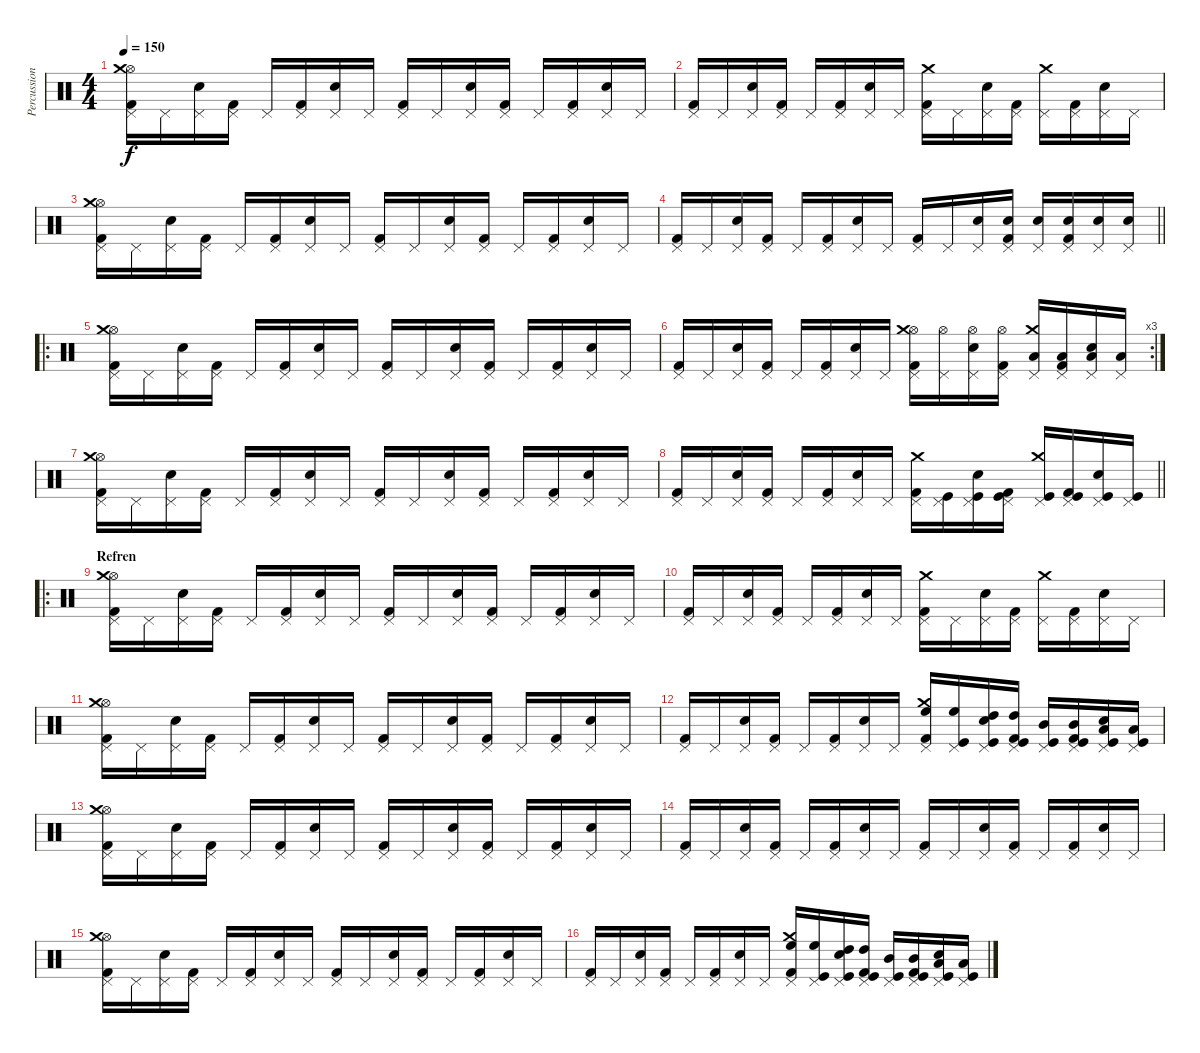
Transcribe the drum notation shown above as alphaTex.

\track ("Percussion" "Percussion") {instrument percussion}
\staff {score}
\articulation defaults
\ts (4 4)
\tempo 150
\clef neutral
\ks c
("Pedal Hi-Hat (hit)" "Kick (hit) 2" "Hi-Hat (open)" "Crash medium (hit)").16{dy f} "Pedal Hi-Hat (hit)".16 ("Pedal Hi-Hat (hit)" "Snare (hit) 2").16 ("Pedal Hi-Hat (hit)" "Kick (hit) 2").16 "Pedal Hi-Hat (hit)".16 ("Pedal Hi-Hat (hit)" "Kick (hit) 2").16 ("Pedal Hi-Hat (hit)" "Snare (hit) 2").16 "Pedal Hi-Hat (hit)".16 ("Pedal Hi-Hat (hit)" "Kick (hit) 2").16 "Pedal Hi-Hat (hit)".16 ("Pedal Hi-Hat (hit)" "Snare (hit) 2").16 ("Pedal Hi-Hat (hit)" "Kick (hit) 2").16 "Pedal Hi-Hat (hit)".16 ("Pedal Hi-Hat (hit)" "Kick (hit) 2").16 ("Pedal Hi-Hat (hit)" "Snare (hit) 2").16 "Pedal Hi-Hat (hit)".16 |
("Pedal Hi-Hat (hit)" "Kick (hit) 2").16 "Pedal Hi-Hat (hit)".16 ("Pedal Hi-Hat (hit)" "Snare (hit) 2").16 ("Pedal Hi-Hat (hit)" "Kick (hit) 2").16 "Pedal Hi-Hat (hit)".16 ("Pedal Hi-Hat (hit)" "Kick (hit) 2").16 ("Pedal Hi-Hat (hit)" "Snare (hit) 2").16 "Pedal Hi-Hat (hit)".16 ("Pedal Hi-Hat (hit)" "Kick (hit) 2" "Crash medium (hit)").16 "Pedal Hi-Hat (hit)".16 ("Pedal Hi-Hat (hit)" "Snare (hit) 2").16 ("Pedal Hi-Hat (hit)" "Kick (hit) 2").16 ("Pedal Hi-Hat (hit)" "Crash medium (hit)").16 ("Pedal Hi-Hat (hit)" "Kick (hit) 2").16 ("Pedal Hi-Hat (hit)" "Snare (hit) 2").16 "Pedal Hi-Hat (hit)".16 |
("Pedal Hi-Hat (hit)" "Kick (hit) 2" "Hi-Hat (open)" "Crash medium (hit)").16 "Pedal Hi-Hat (hit)".16 ("Pedal Hi-Hat (hit)" "Snare (hit) 2").16 ("Pedal Hi-Hat (hit)" "Kick (hit) 2").16 "Pedal Hi-Hat (hit)".16 ("Pedal Hi-Hat (hit)" "Kick (hit) 2").16 ("Pedal Hi-Hat (hit)" "Snare (hit) 2").16 "Pedal Hi-Hat (hit)".16 ("Pedal Hi-Hat (hit)" "Kick (hit) 2").16 "Pedal Hi-Hat (hit)".16 ("Pedal Hi-Hat (hit)" "Snare (hit) 2").16 ("Pedal Hi-Hat (hit)" "Kick (hit) 2").16 "Pedal Hi-Hat (hit)".16 ("Pedal Hi-Hat (hit)" "Kick (hit) 2").16 ("Pedal Hi-Hat (hit)" "Snare (hit) 2").16 "Pedal Hi-Hat (hit)".16 |
\barLineRight lightlight
("Pedal Hi-Hat (hit)" "Kick (hit) 2").16 "Pedal Hi-Hat (hit)".16 ("Pedal Hi-Hat (hit)" "Snare (hit) 2").16 ("Pedal Hi-Hat (hit)" "Kick (hit) 2").16 "Pedal Hi-Hat (hit)".16 ("Pedal Hi-Hat (hit)" "Kick (hit) 2").16 ("Pedal Hi-Hat (hit)" "Snare (hit) 2").16 "Pedal Hi-Hat (hit)".16 ("Pedal Hi-Hat (hit)" "Kick (hit) 2").16 "Pedal Hi-Hat (hit)".16 ("Pedal Hi-Hat (hit)" "Snare (hit) 2").16 ("Pedal Hi-Hat (hit)" "Kick (hit) 2" "Snare (hit) 2").16 ("Pedal Hi-Hat (hit)" "Snare (hit) 2").16 ("Pedal Hi-Hat (hit)" "Kick (hit) 2" "Snare (hit) 2").16 ("Pedal Hi-Hat (hit)" "Snare (hit) 2").16 ("Pedal Hi-Hat (hit)" "Snare (hit) 2").16 |
\ro
("Pedal Hi-Hat (hit)" "Kick (hit) 2" "Hi-Hat (open)" "Crash medium (hit)").16 "Pedal Hi-Hat (hit)".16 ("Pedal Hi-Hat (hit)" "Snare (hit) 2").16 ("Pedal Hi-Hat (hit)" "Kick (hit) 2").16 "Pedal Hi-Hat (hit)".16 ("Pedal Hi-Hat (hit)" "Kick (hit) 2").16 ("Pedal Hi-Hat (hit)" "Snare (hit) 2").16 "Pedal Hi-Hat (hit)".16 ("Pedal Hi-Hat (hit)" "Kick (hit) 2").16 "Pedal Hi-Hat (hit)".16 ("Pedal Hi-Hat (hit)" "Snare (hit) 2").16 ("Pedal Hi-Hat (hit)" "Kick (hit) 2").16 "Pedal Hi-Hat (hit)".16 ("Pedal Hi-Hat (hit)" "Kick (hit) 2").16 ("Pedal Hi-Hat (hit)" "Snare (hit) 2").16 "Pedal Hi-Hat (hit)".16 |
\rc 3
("Pedal Hi-Hat (hit)" "Kick (hit) 2").16 "Pedal Hi-Hat (hit)".16 ("Pedal Hi-Hat (hit)" "Snare (hit) 2").16 ("Pedal Hi-Hat (hit)" "Kick (hit) 2").16 "Pedal Hi-Hat (hit)".16 ("Pedal Hi-Hat (hit)" "Kick (hit) 2").16 ("Pedal Hi-Hat (hit)" "Snare (hit) 2").16 "Pedal Hi-Hat (hit)".16 ("Pedal Hi-Hat (hit)" "Kick (hit) 2" "Hi-Hat (open)" "Crash medium (hit)").16 ("Pedal Hi-Hat (hit)" "Hi-Hat (open)").16 ("Pedal Hi-Hat (hit)" "Snare (hit) 2" "Hi-Hat (open)").16 ("Pedal Hi-Hat (hit)" "Kick (hit) 2" "Hi-Hat (open)").16 ("Pedal Hi-Hat (hit)" "Low Tom (hit)" "Crash medium (hit)").16 ("Pedal Hi-Hat (hit)" "Kick (hit) 2" "Low Tom (hit)").16 ("Pedal Hi-Hat (hit)" "Snare (hit) 2" "Low Tom (hit)").16 ("Pedal Hi-Hat (hit)" "Low Tom (hit)").16 |
("Pedal Hi-Hat (hit)" "Kick (hit) 2" "Hi-Hat (open)" "Crash medium (hit)").16 "Pedal Hi-Hat (hit)".16 ("Pedal Hi-Hat (hit)" "Snare (hit) 2").16 ("Pedal Hi-Hat (hit)" "Kick (hit) 2").16 "Pedal Hi-Hat (hit)".16 ("Pedal Hi-Hat (hit)" "Kick (hit) 2").16 ("Pedal Hi-Hat (hit)" "Snare (hit) 2").16 "Pedal Hi-Hat (hit)".16 ("Pedal Hi-Hat (hit)" "Kick (hit) 2").16 "Pedal Hi-Hat (hit)".16 ("Pedal Hi-Hat (hit)" "Snare (hit) 2").16 ("Pedal Hi-Hat (hit)" "Kick (hit) 2").16 "Pedal Hi-Hat (hit)".16 ("Pedal Hi-Hat (hit)" "Kick (hit) 2").16 ("Pedal Hi-Hat (hit)" "Snare (hit) 2").16 "Pedal Hi-Hat (hit)".16 |
\barLineRight lightlight
("Pedal Hi-Hat (hit)" "Kick (hit) 2").16 "Pedal Hi-Hat (hit)".16 ("Pedal Hi-Hat (hit)" "Snare (hit) 2").16 ("Pedal Hi-Hat (hit)" "Kick (hit) 2").16 "Pedal Hi-Hat (hit)".16 ("Pedal Hi-Hat (hit)" "Kick (hit) 2").16 ("Pedal Hi-Hat (hit)" "Snare (hit) 2").16 "Pedal Hi-Hat (hit)".16 ("Pedal Hi-Hat (hit)" "Kick (hit) 2" "Crash medium (hit)").16 ("Pedal Hi-Hat (hit)" "Kick (hit)").16 ("Pedal Hi-Hat (hit)" "Snare (hit) 2" "Kick (hit)").16 ("Pedal Hi-Hat (hit)" "Kick (hit) 2" "Kick (hit)").16 ("Pedal Hi-Hat (hit)" "Kick (hit)" "Crash medium (hit)").16 ("Pedal Hi-Hat (hit)" "Kick (hit) 2" "Kick (hit)").16 ("Pedal Hi-Hat (hit)" "Snare (hit) 2" "Kick (hit)").16 ("Pedal Hi-Hat (hit)" "Kick (hit)").16 |
\ro
\section ("" "Refren")
("Pedal Hi-Hat (hit)" "Kick (hit) 2" "Hi-Hat (open)" "Crash medium (hit)").16 "Pedal Hi-Hat (hit)".16 ("Pedal Hi-Hat (hit)" "Snare (hit) 2").16 ("Pedal Hi-Hat (hit)" "Kick (hit) 2").16 "Pedal Hi-Hat (hit)".16 ("Pedal Hi-Hat (hit)" "Kick (hit) 2").16 ("Pedal Hi-Hat (hit)" "Snare (hit) 2").16 "Pedal Hi-Hat (hit)".16 ("Pedal Hi-Hat (hit)" "Kick (hit) 2").16 "Pedal Hi-Hat (hit)".16 ("Pedal Hi-Hat (hit)" "Snare (hit) 2").16 ("Pedal Hi-Hat (hit)" "Kick (hit) 2").16 "Pedal Hi-Hat (hit)".16 ("Pedal Hi-Hat (hit)" "Kick (hit) 2").16 ("Pedal Hi-Hat (hit)" "Snare (hit) 2").16 "Pedal Hi-Hat (hit)".16 |
("Pedal Hi-Hat (hit)" "Kick (hit) 2").16 "Pedal Hi-Hat (hit)".16 ("Pedal Hi-Hat (hit)" "Snare (hit) 2").16 ("Pedal Hi-Hat (hit)" "Kick (hit) 2").16 "Pedal Hi-Hat (hit)".16 ("Pedal Hi-Hat (hit)" "Kick (hit) 2").16 ("Pedal Hi-Hat (hit)" "Snare (hit) 2").16 "Pedal Hi-Hat (hit)".16 ("Pedal Hi-Hat (hit)" "Kick (hit) 2" "Crash medium (hit)").16 "Pedal Hi-Hat (hit)".16 ("Pedal Hi-Hat (hit)" "Snare (hit) 2").16 ("Pedal Hi-Hat (hit)" "Kick (hit) 2").16 ("Pedal Hi-Hat (hit)" "Crash medium (hit)").16 ("Pedal Hi-Hat (hit)" "Kick (hit) 2").16 ("Pedal Hi-Hat (hit)" "Snare (hit) 2").16 "Pedal Hi-Hat (hit)".16 |
("Pedal Hi-Hat (hit)" "Kick (hit) 2" "Hi-Hat (open)" "Crash medium (hit)").16 "Pedal Hi-Hat (hit)".16 ("Pedal Hi-Hat (hit)" "Snare (hit) 2").16 ("Pedal Hi-Hat (hit)" "Kick (hit) 2").16 "Pedal Hi-Hat (hit)".16 ("Pedal Hi-Hat (hit)" "Kick (hit) 2").16 ("Pedal Hi-Hat (hit)" "Snare (hit) 2").16 "Pedal Hi-Hat (hit)".16 ("Pedal Hi-Hat (hit)" "Kick (hit) 2").16 "Pedal Hi-Hat (hit)".16 ("Pedal Hi-Hat (hit)" "Snare (hit) 2").16 ("Pedal Hi-Hat (hit)" "Kick (hit) 2").16 "Pedal Hi-Hat (hit)".16 ("Pedal Hi-Hat (hit)" "Kick (hit) 2").16 ("Pedal Hi-Hat (hit)" "Snare (hit) 2").16 "Pedal Hi-Hat (hit)".16 |
("Pedal Hi-Hat (hit)" "Kick (hit) 2").16 "Pedal Hi-Hat (hit)".16 ("Pedal Hi-Hat (hit)" "Snare (hit) 2").16 ("Pedal Hi-Hat (hit)" "Kick (hit) 2").16 "Pedal Hi-Hat (hit)".16 ("Pedal Hi-Hat (hit)" "Kick (hit) 2").16 ("Pedal Hi-Hat (hit)" "Snare (hit) 2").16 "Pedal Hi-Hat (hit)".16 ("Pedal Hi-Hat (hit)" "Kick (hit) 2" "High Floor Tom (hit)" "Crash medium (hit)").16 ("Pedal Hi-Hat (hit)" "Kick (hit)" "High Floor Tom (hit)").16 ("Pedal Hi-Hat (hit)" "Snare (hit) 2" "Kick (hit)" "High Tom (hit)").16 ("Pedal Hi-Hat (hit)" "Kick (hit) 2" "Kick (hit)" "High Tom (hit)").16 ("Pedal Hi-Hat (hit)" "Kick (hit)" "Mid Tom (hit)").16 ("Pedal Hi-Hat (hit)" "Kick (hit) 2" "Kick (hit)" "Mid Tom (hit)").16 ("Pedal Hi-Hat (hit)" "Snare (hit) 2" "Kick (hit)" "Low Tom (hit)").16 ("Pedal Hi-Hat (hit)" "Kick (hit)" "Low Tom (hit)").16 |
("Pedal Hi-Hat (hit)" "Kick (hit) 2" "Hi-Hat (open)" "Crash medium (hit)").16 "Pedal Hi-Hat (hit)".16 ("Pedal Hi-Hat (hit)" "Snare (hit) 2").16 ("Pedal Hi-Hat (hit)" "Kick (hit) 2").16 "Pedal Hi-Hat (hit)".16 ("Pedal Hi-Hat (hit)" "Kick (hit) 2").16 ("Pedal Hi-Hat (hit)" "Snare (hit) 2").16 "Pedal Hi-Hat (hit)".16 ("Pedal Hi-Hat (hit)" "Kick (hit) 2").16 "Pedal Hi-Hat (hit)".16 ("Pedal Hi-Hat (hit)" "Snare (hit) 2").16 ("Pedal Hi-Hat (hit)" "Kick (hit) 2").16 "Pedal Hi-Hat (hit)".16 ("Pedal Hi-Hat (hit)" "Kick (hit) 2").16 ("Pedal Hi-Hat (hit)" "Snare (hit) 2").16 "Pedal Hi-Hat (hit)".16 |
("Pedal Hi-Hat (hit)" "Kick (hit) 2").16 "Pedal Hi-Hat (hit)".16 ("Pedal Hi-Hat (hit)" "Snare (hit) 2").16 ("Pedal Hi-Hat (hit)" "Kick (hit) 2").16 "Pedal Hi-Hat (hit)".16 ("Pedal Hi-Hat (hit)" "Kick (hit) 2").16 ("Pedal Hi-Hat (hit)" "Snare (hit) 2").16 "Pedal Hi-Hat (hit)".16 ("Pedal Hi-Hat (hit)" "Kick (hit) 2").16 "Pedal Hi-Hat (hit)".16 ("Pedal Hi-Hat (hit)" "Snare (hit) 2").16 ("Pedal Hi-Hat (hit)" "Kick (hit) 2").16 "Pedal Hi-Hat (hit)".16 ("Pedal Hi-Hat (hit)" "Kick (hit) 2").16 ("Pedal Hi-Hat (hit)" "Snare (hit) 2").16 "Pedal Hi-Hat (hit)".16 |
("Pedal Hi-Hat (hit)" "Kick (hit) 2" "Hi-Hat (open)" "Crash medium (hit)").16 "Pedal Hi-Hat (hit)".16 ("Pedal Hi-Hat (hit)" "Snare (hit) 2").16 ("Pedal Hi-Hat (hit)" "Kick (hit) 2").16 "Pedal Hi-Hat (hit)".16 ("Pedal Hi-Hat (hit)" "Kick (hit) 2").16 ("Pedal Hi-Hat (hit)" "Snare (hit) 2").16 "Pedal Hi-Hat (hit)".16 ("Pedal Hi-Hat (hit)" "Kick (hit) 2").16 "Pedal Hi-Hat (hit)".16 ("Pedal Hi-Hat (hit)" "Snare (hit) 2").16 ("Pedal Hi-Hat (hit)" "Kick (hit) 2").16 "Pedal Hi-Hat (hit)".16 ("Pedal Hi-Hat (hit)" "Kick (hit) 2").16 ("Pedal Hi-Hat (hit)" "Snare (hit) 2").16 "Pedal Hi-Hat (hit)".16 |
("Pedal Hi-Hat (hit)" "Kick (hit) 2").16 "Pedal Hi-Hat (hit)".16 ("Pedal Hi-Hat (hit)" "Snare (hit) 2").16 ("Pedal Hi-Hat (hit)" "Kick (hit) 2").16 "Pedal Hi-Hat (hit)".16 ("Pedal Hi-Hat (hit)" "Kick (hit) 2").16 ("Pedal Hi-Hat (hit)" "Snare (hit) 2").16 "Pedal Hi-Hat (hit)".16 ("Pedal Hi-Hat (hit)" "Kick (hit) 2" "High Floor Tom (hit)" "Crash medium (hit)").16 ("Pedal Hi-Hat (hit)" "Kick (hit)" "High Floor Tom (hit)").16 ("Pedal Hi-Hat (hit)" "Snare (hit) 2" "Kick (hit)" "High Tom (hit)").16 ("Pedal Hi-Hat (hit)" "Kick (hit) 2" "Kick (hit)" "High Tom (hit)").16 ("Pedal Hi-Hat (hit)" "Kick (hit)" "Mid Tom (hit)").16 ("Pedal Hi-Hat (hit)" "Kick (hit) 2" "Kick (hit)" "Mid Tom (hit)").16 ("Pedal Hi-Hat (hit)" "Snare (hit) 2" "Kick (hit)" "Low Tom (hit)").16 ("Pedal Hi-Hat (hit)" "Kick (hit)" "Low Tom (hit)").16
